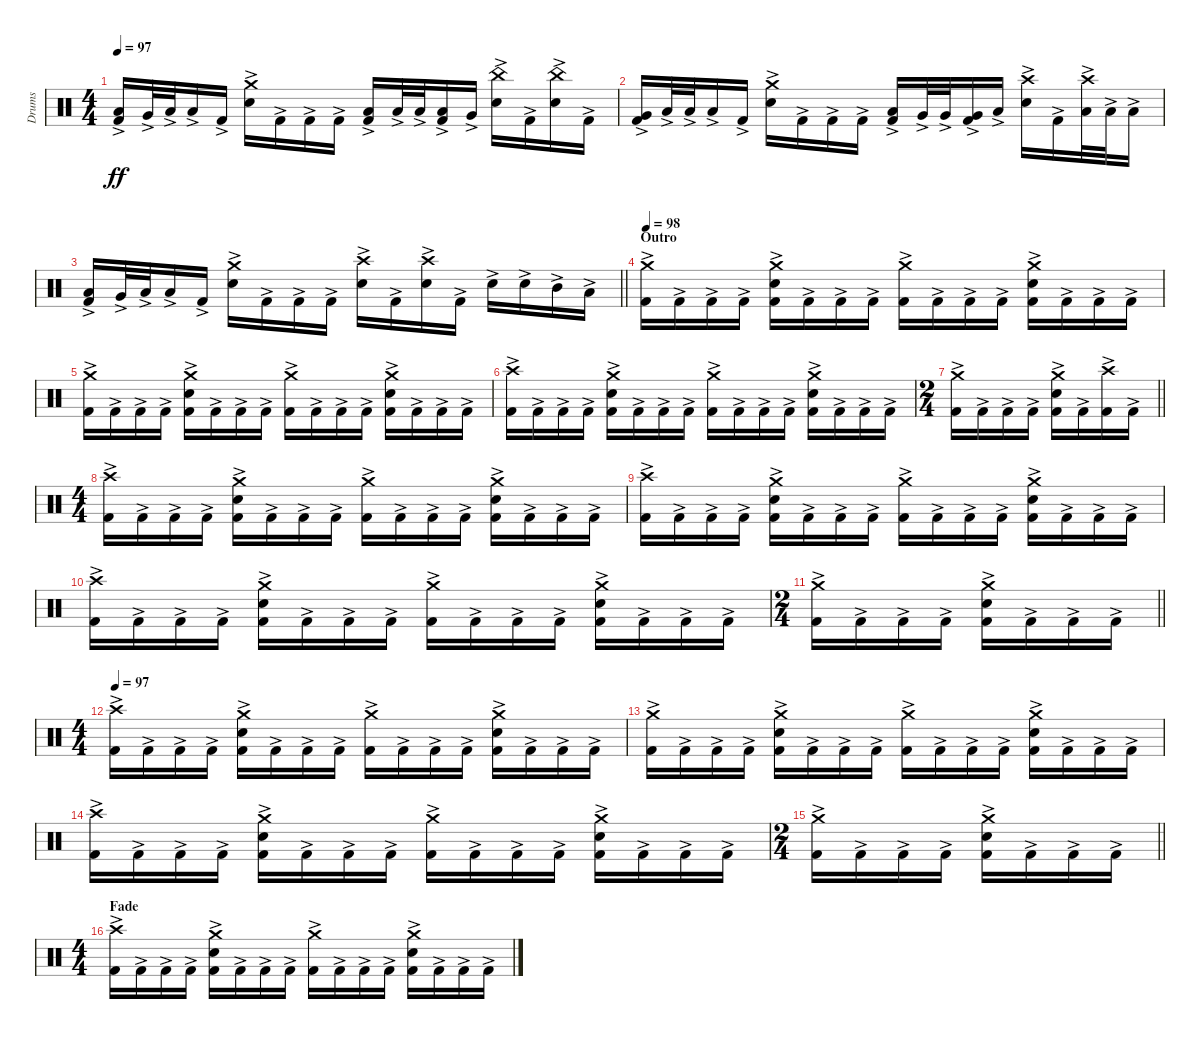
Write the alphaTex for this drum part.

\track ("Drums" "Drums") {instrument percussion}
\staff {score}
\articulation defaults
\ts (4 4)
\tempo 97
\clef neutral
\ks c
("Kick (hit) 2"{ac} "Low Tom (hit)"{ac}).16{dy ff} "Very Low Tom (hit)"{ac}.32 "Low Floor Tom (hit)"{ac}.32 "Low Floor Tom (hit)"{ac}.16 "Kick (hit) 2"{ac}.16 ("Snare (hit) 2"{ac} "Crash medium (hit)").16 "Kick (hit) 2"{ac}.16 "Kick (hit) 2"{ac}.16 "Kick (hit) 2"{ac}.16 ("Kick (hit) 2"{ac} "Low Floor Tom (hit)"{ac}).16 "Low Floor Tom (hit)"{ac}.32 "Low Floor Tom (hit)"{ac}.32 ("Kick (hit) 2"{ac} "Low Floor Tom (hit)"{ac}).16 "Very Low Tom (hit)"{ac}.16 ("Snare (hit) 2"{ac} "China (hit)").16 "Kick (hit) 2"{ac}.16 ("Snare (hit) 2"{ac} "China (hit)").16 "Kick (hit) 2"{ac}.16 |
("Kick (hit) 2"{ac} "Very Low Tom (hit)"{ac}).16 "Low Floor Tom (hit)"{ac}.32 "Low Floor Tom (hit)"{ac}.32 "Low Floor Tom (hit)"{ac}.16 "Kick (hit) 2"{ac}.16 ("Snare (hit) 2"{ac} "Crash medium (hit)").16 "Kick (hit) 2"{ac}.16 "Kick (hit) 2"{ac}.16 "Kick (hit) 2"{ac}.16 ("Kick (hit) 2"{ac} "Low Tom (hit)"{ac}).16 "Very Low Tom (hit)"{ac}.32 "Very Low Tom (hit)"{ac}.32 ("Kick (hit) 2"{ac} "Very Low Tom (hit)"{ac}).16 "Low Floor Tom (hit)"{ac}.16 ("Snare (hit) 2"{ac} "Crash high (hit)").16 "Kick (hit) 2"{ac}.16 ("Low Floor Tom (hit)"{ac} "Crash high (hit)").32 "Low Floor Tom (hit)"{ac}.32 "Low Floor Tom (hit)"{ac}.16 |
\barLineRight lightlight
("Kick (hit) 2"{ac} "Low Tom (hit)"{ac}).16 "Very Low Tom (hit)"{ac}.32 "Low Floor Tom (hit)"{ac}.32 "Low Floor Tom (hit)"{ac}.16 "Kick (hit) 2"{ac}.16 ("Snare (hit) 2"{ac} "Crash medium (hit)").16 "Kick (hit) 2"{ac}.16 "Kick (hit) 2"{ac}.16 "Kick (hit) 2"{ac}.16 ("Snare (hit) 2"{ac} "Crash high (hit)").16 "Kick (hit) 2"{ac}.16 ("Snare (hit) 2"{ac} "Crash high (hit)").16 "Kick (hit) 2"{ac}.16 "Snare (hit) 2"{ac}.16 "Snare (hit) 2"{ac}.16 "Mid Tom (hit)"{ac}.16 "Low Tom (hit)"{ac}.16 |
\section ("" "Outro")
\tempo 98
("Kick (hit) 2"{ac} "Crash medium (hit)").16 "Kick (hit) 2"{ac}.16 "Kick (hit) 2"{ac}.16 "Kick (hit) 2"{ac}.16 ("Kick (hit) 2"{ac} "Snare (hit) 2" "Crash medium (hit)").16 "Kick (hit) 2"{ac}.16 "Kick (hit) 2"{ac}.16 "Kick (hit) 2"{ac}.16 ("Kick (hit) 2"{ac} "Crash medium (hit)").16 "Kick (hit) 2"{ac}.16 "Kick (hit) 2"{ac}.16 "Kick (hit) 2"{ac}.16 ("Kick (hit) 2"{ac} "Snare (hit) 2" "Crash medium (hit)").16 "Kick (hit) 2"{ac}.16 "Kick (hit) 2"{ac}.16 "Kick (hit) 2"{ac}.16 |
("Kick (hit) 2"{ac} "Crash medium (hit)").16 "Kick (hit) 2"{ac}.16 "Kick (hit) 2"{ac}.16 "Kick (hit) 2"{ac}.16 ("Kick (hit) 2"{ac} "Snare (hit) 2" "Crash medium (hit)").16 "Kick (hit) 2"{ac}.16 "Kick (hit) 2"{ac}.16 "Kick (hit) 2"{ac}.16 ("Kick (hit) 2"{ac} "Crash medium (hit)").16 "Kick (hit) 2"{ac}.16 "Kick (hit) 2"{ac}.16 "Kick (hit) 2"{ac}.16 ("Kick (hit) 2"{ac} "Snare (hit) 2" "Crash medium (hit)").16 "Kick (hit) 2"{ac}.16 "Kick (hit) 2"{ac}.16 "Kick (hit) 2"{ac}.16 |
("Kick (hit) 2"{ac} "Crash high (hit)").16 "Kick (hit) 2"{ac}.16 "Kick (hit) 2"{ac}.16 "Kick (hit) 2"{ac}.16 ("Kick (hit) 2"{ac} "Snare (hit) 2" "Crash medium (hit)").16 "Kick (hit) 2"{ac}.16 "Kick (hit) 2"{ac}.16 "Kick (hit) 2"{ac}.16 ("Kick (hit) 2"{ac} "Crash medium (hit)").16 "Kick (hit) 2"{ac}.16 "Kick (hit) 2"{ac}.16 "Kick (hit) 2"{ac}.16 ("Kick (hit) 2"{ac} "Snare (hit) 2" "Crash medium (hit)").16 "Kick (hit) 2"{ac}.16 "Kick (hit) 2"{ac}.16 "Kick (hit) 2"{ac}.16 |
\ts (2 4)
\barLineRight lightlight
("Kick (hit) 2"{ac} "Crash medium (hit)").16 "Kick (hit) 2"{ac}.16 "Kick (hit) 2"{ac}.16 "Kick (hit) 2"{ac}.16 ("Kick (hit) 2"{ac} "Snare (hit) 2" "Crash medium (hit)").16 "Kick (hit) 2"{ac}.16 ("Kick (hit) 2"{ac} "Crash high (hit)").16 "Kick (hit) 2"{ac}.16 |
\ts (4 4)
\section ("" "")
("Kick (hit) 2"{ac} "Crash high (hit)").16 "Kick (hit) 2"{ac}.16 "Kick (hit) 2"{ac}.16 "Kick (hit) 2"{ac}.16 ("Kick (hit) 2"{ac} "Snare (hit) 2" "Crash medium (hit)").16 "Kick (hit) 2"{ac}.16 "Kick (hit) 2"{ac}.16 "Kick (hit) 2"{ac}.16 ("Kick (hit) 2"{ac} "Crash medium (hit)").16 "Kick (hit) 2"{ac}.16 "Kick (hit) 2"{ac}.16 "Kick (hit) 2"{ac}.16 ("Kick (hit) 2"{ac} "Snare (hit) 2" "Crash medium (hit)").16 "Kick (hit) 2"{ac}.16 "Kick (hit) 2"{ac}.16 "Kick (hit) 2"{ac}.16 |
("Kick (hit) 2"{ac} "Crash high (hit)").16 "Kick (hit) 2"{ac}.16 "Kick (hit) 2"{ac}.16 "Kick (hit) 2"{ac}.16 ("Kick (hit) 2"{ac} "Snare (hit) 2" "Crash medium (hit)").16 "Kick (hit) 2"{ac}.16 "Kick (hit) 2"{ac}.16 "Kick (hit) 2"{ac}.16 ("Kick (hit) 2"{ac} "Crash medium (hit)").16 "Kick (hit) 2"{ac}.16 "Kick (hit) 2"{ac}.16 "Kick (hit) 2"{ac}.16 ("Kick (hit) 2"{ac} "Snare (hit) 2" "Crash medium (hit)").16 "Kick (hit) 2"{ac}.16 "Kick (hit) 2"{ac}.16 "Kick (hit) 2"{ac}.16 |
("Kick (hit) 2"{ac} "Crash high (hit)").16 "Kick (hit) 2"{ac}.16 "Kick (hit) 2"{ac}.16 "Kick (hit) 2"{ac}.16 ("Kick (hit) 2"{ac} "Snare (hit) 2" "Crash medium (hit)").16 "Kick (hit) 2"{ac}.16 "Kick (hit) 2"{ac}.16 "Kick (hit) 2"{ac}.16 ("Kick (hit) 2"{ac} "Crash medium (hit)").16 "Kick (hit) 2"{ac}.16 "Kick (hit) 2"{ac}.16 "Kick (hit) 2"{ac}.16 ("Kick (hit) 2"{ac} "Snare (hit) 2" "Crash medium (hit)").16 "Kick (hit) 2"{ac}.16 "Kick (hit) 2"{ac}.16 "Kick (hit) 2"{ac}.16 |
\ts (2 4)
\barLineRight lightlight
("Kick (hit) 2"{ac} "Crash medium (hit)").16 "Kick (hit) 2"{ac}.16 "Kick (hit) 2"{ac}.16 "Kick (hit) 2"{ac}.16 ("Kick (hit) 2"{ac} "Snare (hit) 2" "Crash medium (hit)").16 "Kick (hit) 2"{ac}.16 "Kick (hit) 2"{ac}.16 "Kick (hit) 2"{ac}.16 |
\ts (4 4)
\section ("" "")
\tempo 97
("Kick (hit) 2"{ac} "Crash high (hit)").16 "Kick (hit) 2"{ac}.16 "Kick (hit) 2"{ac}.16 "Kick (hit) 2"{ac}.16 ("Kick (hit) 2"{ac} "Snare (hit) 2" "Crash medium (hit)").16 "Kick (hit) 2"{ac}.16 "Kick (hit) 2"{ac}.16 "Kick (hit) 2"{ac}.16 ("Kick (hit) 2"{ac} "Crash medium (hit)").16 "Kick (hit) 2"{ac}.16 "Kick (hit) 2"{ac}.16 "Kick (hit) 2"{ac}.16 ("Kick (hit) 2"{ac} "Snare (hit) 2" "Crash medium (hit)").16 "Kick (hit) 2"{ac}.16 "Kick (hit) 2"{ac}.16 "Kick (hit) 2"{ac}.16 |
("Kick (hit) 2"{ac} "Crash medium (hit)").16 "Kick (hit) 2"{ac}.16 "Kick (hit) 2"{ac}.16 "Kick (hit) 2"{ac}.16 ("Kick (hit) 2"{ac} "Snare (hit) 2" "Crash medium (hit)").16 "Kick (hit) 2"{ac}.16 "Kick (hit) 2"{ac}.16 "Kick (hit) 2"{ac}.16 ("Kick (hit) 2"{ac} "Crash medium (hit)").16 "Kick (hit) 2"{ac}.16 "Kick (hit) 2"{ac}.16 "Kick (hit) 2"{ac}.16 ("Kick (hit) 2"{ac} "Snare (hit) 2" "Crash medium (hit)").16 "Kick (hit) 2"{ac}.16 "Kick (hit) 2"{ac}.16 "Kick (hit) 2"{ac}.16 |
("Kick (hit) 2"{ac} "Crash high (hit)").16 "Kick (hit) 2"{ac}.16 "Kick (hit) 2"{ac}.16 "Kick (hit) 2"{ac}.16 ("Kick (hit) 2"{ac} "Snare (hit) 2" "Crash medium (hit)").16 "Kick (hit) 2"{ac}.16 "Kick (hit) 2"{ac}.16 "Kick (hit) 2"{ac}.16 ("Kick (hit) 2"{ac} "Crash medium (hit)").16 "Kick (hit) 2"{ac}.16 "Kick (hit) 2"{ac}.16 "Kick (hit) 2"{ac}.16 ("Kick (hit) 2"{ac} "Snare (hit) 2" "Crash medium (hit)").16 "Kick (hit) 2"{ac}.16 "Kick (hit) 2"{ac}.16 "Kick (hit) 2"{ac}.16 |
\ts (2 4)
\barLineRight lightlight
("Kick (hit) 2"{ac} "Crash medium (hit)").16 "Kick (hit) 2"{ac}.16 "Kick (hit) 2"{ac}.16 "Kick (hit) 2"{ac}.16 ("Kick (hit) 2"{ac} "Snare (hit) 2" "Crash medium (hit)").16 "Kick (hit) 2"{ac}.16 "Kick (hit) 2"{ac}.16 "Kick (hit) 2"{ac}.16 |
\ts (4 4)
\section ("" "Fade")
("Kick (hit) 2"{ac} "Crash high (hit)").16 "Kick (hit) 2"{ac}.16 "Kick (hit) 2"{ac}.16 "Kick (hit) 2"{ac}.16 ("Kick (hit) 2"{ac} "Snare (hit) 2" "Crash medium (hit)").16 "Kick (hit) 2"{ac}.16 "Kick (hit) 2"{ac}.16 "Kick (hit) 2"{ac}.16 ("Kick (hit) 2"{ac} "Crash medium (hit)").16 "Kick (hit) 2"{ac}.16 "Kick (hit) 2"{ac}.16 "Kick (hit) 2"{ac}.16 ("Kick (hit) 2"{ac} "Snare (hit) 2" "Crash medium (hit)").16 "Kick (hit) 2"{ac}.16 "Kick (hit) 2"{ac}.16 "Kick (hit) 2"{ac}.16
